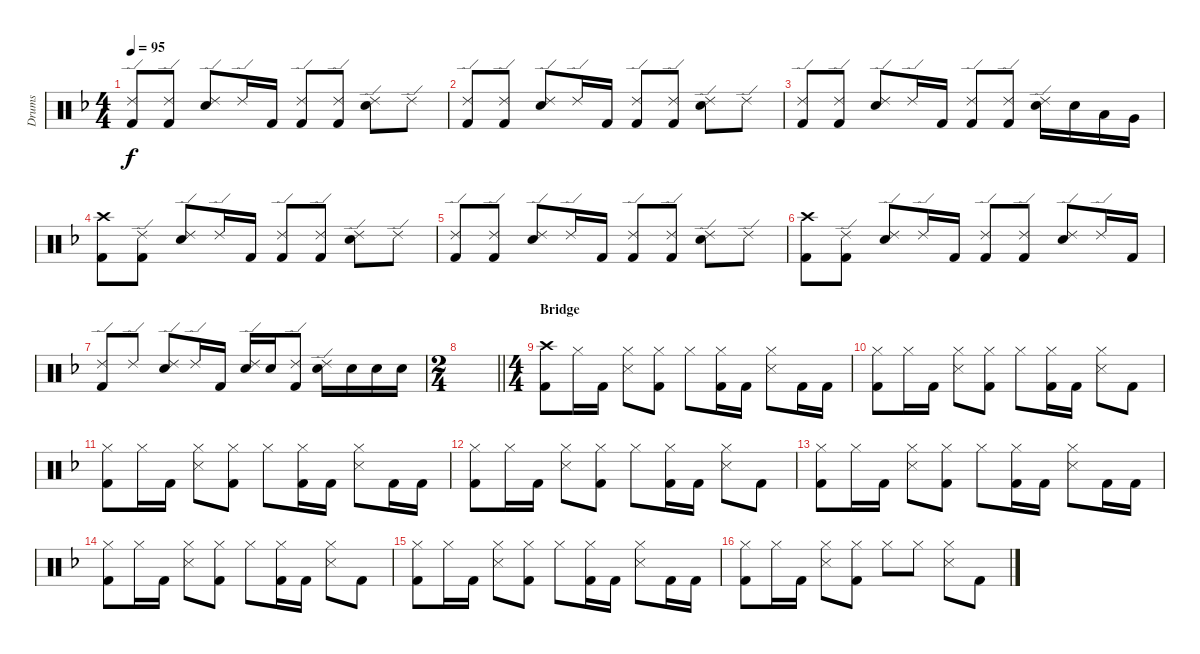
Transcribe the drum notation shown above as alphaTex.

\track ("Drums" "Drums") {instrument percussion}
\staff {score}
\articulation defaults
\ts (4 4)
\tempo 95
\clef neutral
\ks f
("Ride (edge) 2" "Kick (hit) 2").8{dy f} ("Ride (edge) 2" "Kick (hit) 2").8 ("Ride (edge) 2" "Electric Snare (hit)").8 "Ride (edge) 2".16 "Kick (hit) 2".16 ("Ride (edge) 2" "Kick (hit) 2").8 ("Ride (edge) 2" "Kick (hit) 2").8 ("Ride (edge) 2" "Electric Snare (hit)").8 "Ride (edge) 2".8 |
("Ride (edge) 2" "Kick (hit) 2").8 ("Ride (edge) 2" "Kick (hit) 2").8 ("Ride (edge) 2" "Electric Snare (hit)").8 "Ride (edge) 2".16 "Kick (hit) 2".16 ("Ride (edge) 2" "Kick (hit) 2").8 ("Ride (edge) 2" "Kick (hit) 2").8 ("Ride (edge) 2" "Electric Snare (hit)").8 "Ride (edge) 2".8 |
("Ride (edge) 2" "Kick (hit) 2").8 ("Ride (edge) 2" "Kick (hit) 2").8 ("Ride (edge) 2" "Electric Snare (hit)").8 "Ride (edge) 2".16 "Kick (hit) 2".16 ("Ride (edge) 2" "Kick (hit) 2").8 ("Ride (edge) 2" "Kick (hit) 2").8 ("Ride (edge) 2" "Electric Snare (hit)").16 "Electric Snare (hit)".16 "Low Tom (hit)".16 "Very Low Tom (hit)".16 |
("Crash high (hit)" "Kick (hit) 2").8 ("Ride (edge) 2" "Kick (hit) 2").8 ("Ride (edge) 2" "Electric Snare (hit)").8 "Ride (edge) 2".16 "Kick (hit) 2".16 ("Ride (edge) 2" "Kick (hit) 2").8 ("Ride (edge) 2" "Kick (hit) 2").8 ("Ride (edge) 2" "Electric Snare (hit)").8 "Ride (edge) 2".8 |
("Ride (edge) 2" "Kick (hit) 2").8 ("Ride (edge) 2" "Kick (hit) 2").8 ("Ride (edge) 2" "Electric Snare (hit)").8 "Ride (edge) 2".16 "Kick (hit) 2".16 ("Ride (edge) 2" "Kick (hit) 2").8 ("Ride (edge) 2" "Kick (hit) 2").8 ("Ride (edge) 2" "Electric Snare (hit)").8 "Ride (edge) 2".8 |
("Crash high (hit)" "Kick (hit) 2").8 ("Ride (edge) 2" "Kick (hit) 2").8 ("Ride (edge) 2" "Electric Snare (hit)").8 "Ride (edge) 2".16 "Kick (hit) 2".16 ("Ride (edge) 2" "Kick (hit) 2").8 ("Ride (edge) 2" "Kick (hit) 2").8 ("Ride (edge) 2" "Electric Snare (hit)").8 "Ride (edge) 2".16 "Kick (hit) 2".16 |
("Ride (edge) 2" "Kick (hit) 2").8 "Ride (edge) 2".8 ("Ride (edge) 2" "Electric Snare (hit)").8 "Ride (edge) 2".16 "Kick (hit) 2".16 ("Ride (edge) 2" "Electric Snare (hit)").16 "Electric Snare (hit)".16 ("Ride (edge) 2" "Kick (hit) 2").8 ("Ride (edge) 2" "Electric Snare (hit)").16 "Electric Snare (hit)".16 "Electric Snare (hit)".16 "Electric Snare (hit)".16 |
\ts (2 4)
\barLineRight lightlight
|
\ts (4 4)
\section ("" "Bridge")
("Crash high (hit)" "Kick (hit) 2").8 "Hi-Hat (closed)".16 "Kick (hit) 2".16 ("Hi-Hat (closed)" "Snare (side stick) 3").8 ("Hi-Hat (closed)" "Kick (hit) 2").8 "Hi-Hat (closed)".8 ("Hi-Hat (closed)" "Kick (hit) 2").16 "Kick (hit) 2".16 ("Hi-Hat (closed)" "Snare (side stick) 3").8 "Kick (hit) 2".16 "Kick (hit) 2".16 |
("Hi-Hat (closed)" "Kick (hit) 2").8 "Hi-Hat (closed)".16 "Kick (hit) 2".16 ("Hi-Hat (closed)" "Snare (side stick) 3").8 ("Hi-Hat (closed)" "Kick (hit) 2").8 "Hi-Hat (closed)".8 ("Hi-Hat (closed)" "Kick (hit) 2").16 "Kick (hit) 2".16 ("Hi-Hat (closed)" "Snare (side stick) 3").8 "Kick (hit) 2".8 |
("Hi-Hat (closed)" "Kick (hit) 2").8 "Hi-Hat (closed)".16 "Kick (hit) 2".16 ("Hi-Hat (closed)" "Snare (side stick) 3").8 ("Hi-Hat (closed)" "Kick (hit) 2").8 "Hi-Hat (closed)".8 ("Hi-Hat (closed)" "Kick (hit) 2").16 "Kick (hit) 2".16 ("Hi-Hat (closed)" "Snare (side stick) 3").8 "Kick (hit) 2".16 "Kick (hit) 2".16 |
("Hi-Hat (closed)" "Kick (hit) 2").8 "Hi-Hat (closed)".16 "Kick (hit) 2".16 ("Hi-Hat (closed)" "Snare (side stick) 3").8 ("Hi-Hat (closed)" "Kick (hit) 2").8 "Hi-Hat (closed)".8 ("Hi-Hat (closed)" "Kick (hit) 2").16 "Kick (hit) 2".16 ("Hi-Hat (closed)" "Snare (side stick) 3").8 "Kick (hit) 2".8 |
("Hi-Hat (closed)" "Kick (hit) 2").8 "Hi-Hat (closed)".16 "Kick (hit) 2".16 ("Hi-Hat (closed)" "Snare (side stick) 3").8 ("Hi-Hat (closed)" "Kick (hit) 2").8 "Hi-Hat (closed)".8 ("Hi-Hat (closed)" "Kick (hit) 2").16 "Kick (hit) 2".16 ("Hi-Hat (closed)" "Snare (side stick) 3").8 "Kick (hit) 2".16 "Kick (hit) 2".16 |
("Hi-Hat (closed)" "Kick (hit) 2").8 "Hi-Hat (closed)".16 "Kick (hit) 2".16 ("Hi-Hat (closed)" "Snare (side stick) 3").8 ("Hi-Hat (closed)" "Kick (hit) 2").8 "Hi-Hat (closed)".8 ("Hi-Hat (closed)" "Kick (hit) 2").16 "Kick (hit) 2".16 ("Hi-Hat (closed)" "Snare (side stick) 3").8 "Kick (hit) 2".8 |
("Hi-Hat (closed)" "Kick (hit) 2").8 "Hi-Hat (closed)".16 "Kick (hit) 2".16 ("Hi-Hat (closed)" "Snare (side stick) 3").8 ("Hi-Hat (closed)" "Kick (hit) 2").8 "Hi-Hat (closed)".8 ("Hi-Hat (closed)" "Kick (hit) 2").16 "Kick (hit) 2".16 ("Hi-Hat (closed)" "Snare (side stick) 3").8 "Kick (hit) 2".16 "Kick (hit) 2".16 |
("Hi-Hat (closed)" "Kick (hit) 2").8 "Hi-Hat (closed)".16 "Kick (hit) 2".16 ("Hi-Hat (closed)" "Snare (side stick) 3").8 ("Hi-Hat (closed)" "Kick (hit) 2").8 "Hi-Hat (closed)".8 "Hi-Hat (closed)".8 ("Hi-Hat (closed)" "Snare (side stick) 3").8 "Kick (hit) 2".8
